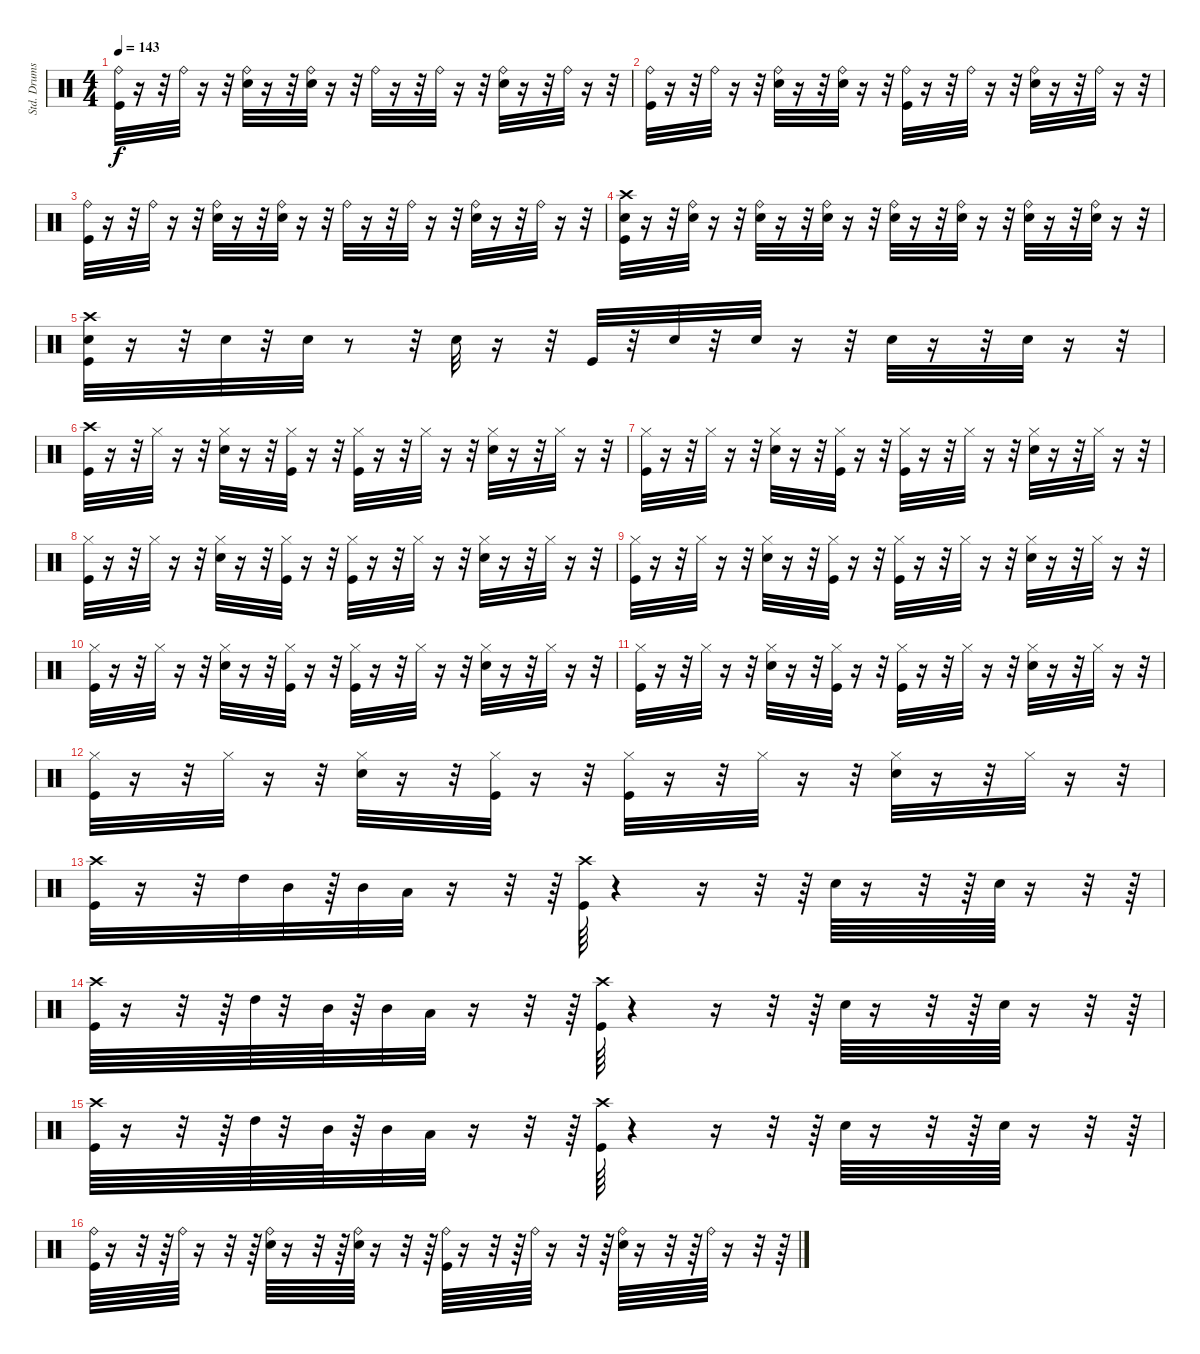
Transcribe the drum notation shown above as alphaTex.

\track ("Std. Drums " "Std. Drums") {instrument percussion}
\staff {score}
\articulation defaults
\ts (4 4)
\tempo 143
\clef neutral
\ks c
("Ride (bell)" "Kick (hit)").32{dy f} r.16 r.32 "Ride (bell)".32 r.16 r.32 ("Ride (bell)" "Snare (hit) 2").32 r.16 r.32 ("Ride (bell)" "Snare (hit) 2").32 r.16 r.32 "Ride (bell)".32 r.16 r.32 "Ride (bell)".32 r.16 r.32 ("Ride (bell)" "Snare (hit) 2").32 r.16 r.32 "Ride (bell)".32 r.16 r.32 |
("Ride (bell)" "Kick (hit)").32 r.16 r.32 "Ride (bell)".32 r.16 r.32 ("Snare (hit) 2" "Ride (bell)").32 r.16 r.32 ("Snare (hit) 2" "Ride (bell)").32 r.16 r.32 ("Ride (bell)" "Kick (hit)").32 r.16 r.32 "Ride (bell)".32 r.16 r.32 ("Snare (hit) 2" "Ride (bell)").32 r.16 r.32 "Ride (bell)".32 r.16 r.32 |
("Kick (hit)" "Ride (bell)").32 r.16 r.32 "Ride (bell)".32 r.16 r.32 ("Ride (bell)" "Snare (hit) 2").32 r.16 r.32 ("Snare (hit) 2" "Ride (bell)").32 r.16 r.32 "Ride (bell)".32 r.16 r.32 "Ride (bell)".32 r.16 r.32 ("Snare (hit) 2" "Ride (bell)").32 r.16 r.32 "Ride (bell)".32 r.16 r.32 |
("Snare (hit) 2" "Kick (hit)" "Crash high (hit)").32 r.16 r.32 ("Ride (bell)" "Snare (hit) 2").32 r.16 r.32 ("Snare (hit) 2" "Ride (bell)").32 r.16 r.32 ("Snare (hit) 2" "Ride (bell)").32 r.16 r.32 ("Ride (bell)" "Snare (hit) 2").32 r.16 r.32 ("Snare (hit) 2" "Ride (bell)").32 r.16 r.32 ("Snare (hit) 2" "Ride (bell)").32 r.16 r.32 ("Snare (hit) 2" "Ride (bell)").32 r.16 r.32 |
("Snare (hit) 2" "Crash high (hit)" "Kick (hit)").32 r.16 r.32 "Snare (hit) 2".32 r.32 "Snare (hit) 2".32 r.8 r.32 "Snare (hit) 2".32 r.16 r.32 "Kick (hit)".32 r.32 "Snare (hit) 2".32 r.32 "Snare (hit) 2".32 r.16 r.32 "Snare (hit) 2".32 r.16 r.32 "Snare (hit) 2".32 r.16 r.32 |
("Kick (hit)" "Crash high (hit)").32 r.16 r.32 "Hi-Hat (closed)".32 r.16 r.32 ("Hi-Hat (closed)" "Snare (hit) 2").32 r.16 r.32 ("Hi-Hat (closed)" "Kick (hit)").32 r.16 r.32 ("Hi-Hat (closed)" "Kick (hit)").32 r.16 r.32 "Hi-Hat (closed)".32 r.16 r.32 ("Hi-Hat (closed)" "Snare (hit) 2").32 r.16 r.32 "Hi-Hat (closed)".32 r.16 r.32 |
("Hi-Hat (closed)" "Kick (hit)").32 r.16 r.32 "Hi-Hat (closed)".32 r.16 r.32 ("Hi-Hat (closed)" "Snare (hit) 2").32 r.16 r.32 ("Hi-Hat (closed)" "Kick (hit)").32 r.16 r.32 ("Hi-Hat (closed)" "Kick (hit)").32 r.16 r.32 "Hi-Hat (closed)".32 r.16 r.32 ("Hi-Hat (closed)" "Snare (hit) 2").32 r.16 r.32 "Hi-Hat (closed)".32 r.16 r.32 |
("Hi-Hat (closed)" "Kick (hit)").32 r.16 r.32 "Hi-Hat (closed)".32 r.16 r.32 ("Hi-Hat (closed)" "Snare (hit) 2").32 r.16 r.32 ("Hi-Hat (closed)" "Kick (hit)").32 r.16 r.32 ("Hi-Hat (closed)" "Kick (hit)").32 r.16 r.32 "Hi-Hat (closed)".32 r.16 r.32 ("Hi-Hat (closed)" "Snare (hit) 2").32 r.16 r.32 "Hi-Hat (closed)".32 r.16 r.32 |
("Hi-Hat (closed)" "Kick (hit)").32 r.16 r.32 "Hi-Hat (closed)".32 r.16 r.32 ("Hi-Hat (closed)" "Snare (hit) 2").32 r.16 r.32 ("Hi-Hat (closed)" "Kick (hit)").32 r.16 r.32 ("Hi-Hat (closed)" "Kick (hit)").32 r.16 r.32 "Hi-Hat (closed)".32 r.16 r.32 ("Hi-Hat (closed)" "Snare (hit) 2").32 r.16 r.32 "Hi-Hat (closed)".32 r.16 r.32 |
("Hi-Hat (closed)" "Kick (hit)").32 r.16 r.32 "Hi-Hat (closed)".32 r.16 r.32 ("Hi-Hat (closed)" "Snare (hit) 2").32 r.16 r.32 ("Hi-Hat (closed)" "Kick (hit)").32 r.16 r.32 ("Hi-Hat (closed)" "Kick (hit)").32 r.16 r.32 "Hi-Hat (closed)".32 r.16 r.32 ("Hi-Hat (closed)" "Snare (hit) 2").32 r.16 r.32 "Hi-Hat (closed)".32 r.16 r.32 |
("Hi-Hat (closed)" "Kick (hit)").32 r.16 r.32 "Hi-Hat (closed)".32 r.16 r.32 ("Hi-Hat (closed)" "Snare (hit) 2").32 r.16 r.32 ("Hi-Hat (closed)" "Kick (hit)").32 r.16 r.32 ("Hi-Hat (closed)" "Kick (hit)").32 r.16 r.32 "Hi-Hat (closed)".32 r.16 r.32 ("Hi-Hat (closed)" "Snare (hit) 2").32 r.16 r.32 "Hi-Hat (closed)".32 r.16 r.32 |
("Hi-Hat (closed)" "Kick (hit)").32 r.16 r.32 "Hi-Hat (closed)".32 r.16 r.32 ("Hi-Hat (closed)" "Snare (hit) 2").32 r.16 r.32 ("Hi-Hat (closed)" "Kick (hit)").32 r.16 r.32 ("Hi-Hat (closed)" "Kick (hit)").32 r.16 r.32 "Hi-Hat (closed)".32 r.16 r.32 ("Hi-Hat (closed)" "Snare (hit) 2").32 r.16 r.32 "Hi-Hat (closed)".32 r.16 r.32 |
("Crash high (hit)" "Kick (hit)").32 r.16 r.32 "High Tom (hit)".32 "Mid Tom (hit)".32 r.64 "Mid Tom (hit)".32 "Low Tom (hit)".32 r.16 r.32 r.64 ("Crash high (hit)" "Kick (hit)").64 r.4 r.16 r.32 r.64 "Snare (hit) 2".64 r.16 r.32 r.64 "Snare (hit) 2".64 r.16 r.32 r.64 |
("Crash high (hit)" "Kick (hit)").64 r.16 r.32 r.64 "High Tom (hit)".64 r.32 "Mid Tom (hit)".64 r.64 "Mid Tom (hit)".32 "Low Tom (hit)".32 r.16 r.32 r.64 ("Crash high (hit)" "Kick (hit)").64 r.4 r.16 r.32 r.64 "Snare (hit) 2".64 r.16 r.32 r.64 "Snare (hit) 2".64 r.16 r.32 r.64 |
("Crash high (hit)" "Kick (hit)").64 r.16 r.32 r.64 "High Tom (hit)".64 r.32 "Mid Tom (hit)".64 r.64 "Mid Tom (hit)".32 "Low Tom (hit)".32 r.16 r.32 r.64 ("Kick (hit)" "Crash high (hit)").64 r.4 r.16 r.32 r.64 "Snare (hit) 2".64 r.16 r.32 r.64 "Snare (hit) 2".64 r.16 r.32 r.64 |
("Kick (hit)" "Ride (bell)").64 r.16 r.32 r.64 "Ride (bell)".64 r.16 r.32 r.64 ("Ride (bell)" "Snare (hit) 2").64 r.16 r.32 r.64 ("Snare (hit) 2" "Ride (bell)").64 r.16 r.32 r.64 ("Kick (hit)" "Ride (bell)").64 r.16 r.32 r.64 "Ride (bell)".64 r.16 r.32 r.64 ("Snare (hit) 2" "Ride (bell)").64 r.16 r.32 r.64 "Ride (bell)".64 r.16 r.32 r.64
